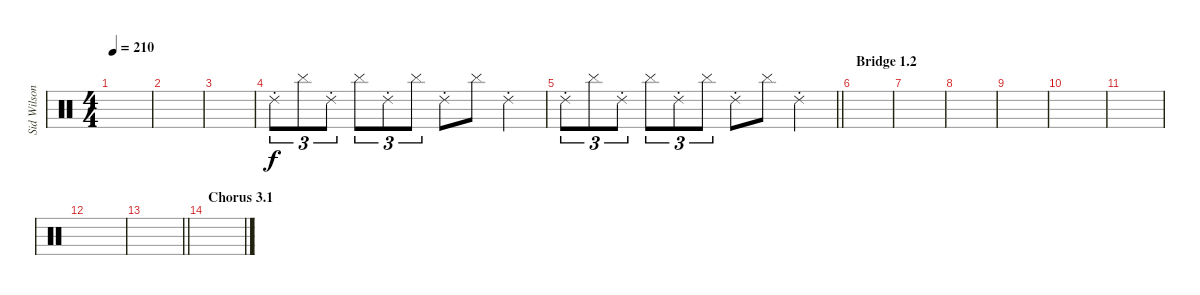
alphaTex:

\track ("Sid Wilson" "Sid Wilson") {instrument percussion}
\staff {score}
\articulation defaults
\ts (4 4)
\tempo 210
\clef neutral
\ks c
|
|
|
"Ride (choke) 2".8{tu (3 2) dy f} "Cymbal (hit)".8{tu (3 2)} "Ride (choke) 2".8{tu (3 2)} "Cymbal (hit)".8{tu (3 2)} "Ride (choke) 2".8{tu (3 2)} "Cymbal (hit)".8{tu (3 2)} "Ride (choke) 2".8 "Cymbal (hit)".8 "Ride (choke) 2".4 |
\barLineRight lightlight "Ride (choke) 2".8{tu (3 2)} "Cymbal (hit)".8{tu (3 2)} "Ride (choke) 2".8{tu (3 2)} "Cymbal (hit)".8{tu (3 2)} "Ride (choke) 2".8{tu (3 2)} "Cymbal (hit)".8{tu (3 2)} "Ride (choke) 2".8 "Cymbal (hit)".8 "Ride (choke) 2".4
|
\section ("" "Bridge 1.2")
|
|
|
|
|
|
|
\barLineRight lightlight
|
\section ("" "Chorus 3.1")
